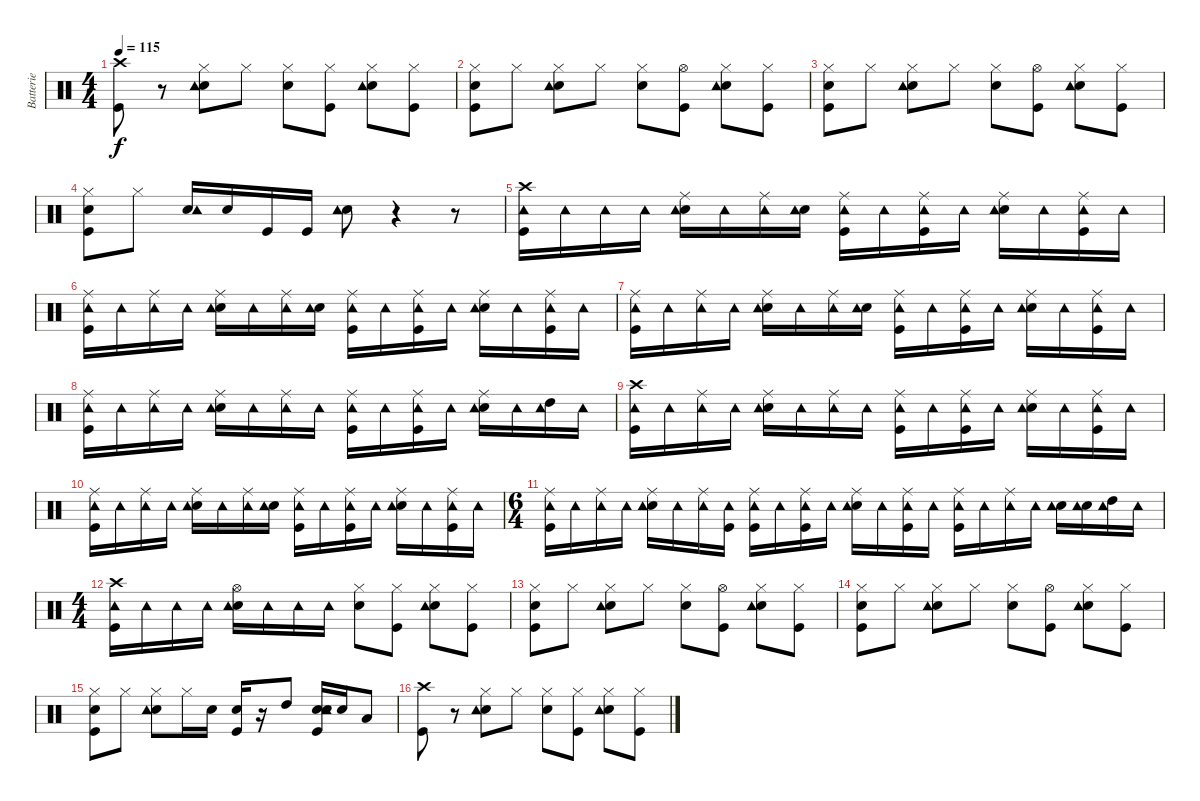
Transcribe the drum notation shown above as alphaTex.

\track ("Batterie" "Batterie") {instrument percussion}
\staff {score}
\articulation defaults
\ts (4 4)
\tempo 115
\clef neutral
\ks c
("Crash high (hit)" "Kick (hit)").8{dy f} r.8 ("Electric Snare (hit)" "Hi-Hat (closed)" "Tambourine (hit)").8 "Hi-Hat (closed)".8 ("Hi-Hat (closed)" "Electric Snare (hit)").8 ("Hi-Hat (closed)" "Kick (hit)").8 ("Hi-Hat (closed)" "Electric Snare (hit)" "Tambourine (hit)").8 ("Hi-Hat (closed)" "Kick (hit)").8 |
("Hi-Hat (closed)" "Electric Snare (hit)" "Kick (hit)").8 "Hi-Hat (closed)".8 ("Hi-Hat (closed)" "Electric Snare (hit)" "Tambourine (hit)").8 "Hi-Hat (closed)".8 ("Electric Snare (hit)" "Hi-Hat (closed)").8 ("Kick (hit)" "Hi-Hat (open)").8 ("Electric Snare (hit)" "Hi-Hat (closed)" "Tambourine (hit)").8 ("Kick (hit)" "Hi-Hat (closed)").8 |
("Hi-Hat (closed)" "Electric Snare (hit)" "Kick (hit)").8 "Hi-Hat (closed)".8 ("Electric Snare (hit)" "Hi-Hat (closed)" "Tambourine (hit)").8 "Hi-Hat (closed)".8 ("Hi-Hat (closed)" "Electric Snare (hit)").8 ("Hi-Hat (open)" "Kick (hit)").8 ("Electric Snare (hit)" "Hi-Hat (closed)" "Tambourine (hit)").8 ("Kick (hit)" "Hi-Hat (closed)").8 |
("Hi-Hat (closed)" "Electric Snare (hit)" "Kick (hit)").8 "Hi-Hat (closed)".8 ("Electric Snare (hit)" "Tambourine (hit)").16 "Electric Snare (hit)".16 "Kick (hit)".16 "Kick (hit)".16 ("Electric Snare (hit)" "Tambourine (hit)").8 r.4 r.8 |
("Kick (hit)" "Crash high (hit)" "Tambourine (hit)").16 "Tambourine (hit)".16 "Tambourine (hit)".16 "Tambourine (hit)".16 ("Ride (middle)" "Electric Snare (hit)" "Tambourine (hit)").16 "Tambourine (hit)".16 ("Ride (middle)" "Tambourine (hit)").16 ("Electric Snare (hit)" "Tambourine (hit)").16 ("Ride (middle)" "Kick (hit)" "Tambourine (hit)").16 "Tambourine (hit)".16 ("Kick (hit)" "Ride (middle)" "Tambourine (hit)").16 "Tambourine (hit)".16 ("Electric Snare (hit)" "Ride (middle)" "Tambourine (hit)").16 "Tambourine (hit)".16 ("Ride (middle)" "Kick (hit)" "Tambourine (hit)").16 "Tambourine (hit)".16 |
("Kick (hit)" "Ride (middle)" "Tambourine (hit)").16 "Tambourine (hit)".16 ("Ride (middle)" "Tambourine (hit)").16 "Tambourine (hit)".16 ("Electric Snare (hit)" "Ride (middle)" "Tambourine (hit)").16 "Tambourine (hit)".16 ("Ride (middle)" "Tambourine (hit)").16 ("Electric Snare (hit)" "Tambourine (hit)").16 ("Ride (middle)" "Kick (hit)" "Tambourine (hit)").16 "Tambourine (hit)".16 ("Ride (middle)" "Kick (hit)" "Tambourine (hit)").16 "Tambourine (hit)".16 ("Ride (middle)" "Electric Snare (hit)" "Tambourine (hit)").16 "Tambourine (hit)".16 ("Kick (hit)" "Ride (middle)" "Tambourine (hit)").16 "Tambourine (hit)".16 |
("Kick (hit)" "Ride (middle)" "Tambourine (hit)").16 "Tambourine (hit)".16 ("Ride (middle)" "Tambourine (hit)").16 "Tambourine (hit)".16 ("Ride (middle)" "Electric Snare (hit)" "Tambourine (hit)").16 "Tambourine (hit)".16 ("Ride (middle)" "Tambourine (hit)").16 ("Electric Snare (hit)" "Tambourine (hit)").16 ("Kick (hit)" "Ride (middle)" "Tambourine (hit)").16 "Tambourine (hit)".16 ("Kick (hit)" "Ride (middle)" "Tambourine (hit)").16 "Tambourine (hit)".16 ("Ride (middle)" "Electric Snare (hit)" "Tambourine (hit)").16 "Tambourine (hit)".16 ("Kick (hit)" "Ride (middle)" "Tambourine (hit)").16 "Tambourine (hit)".16 |
("Ride (middle)" "Kick (hit)" "Tambourine (hit)").16 "Tambourine (hit)".16 ("Ride (middle)" "Tambourine (hit)").16 "Tambourine (hit)".16 ("Ride (middle)" "Electric Snare (hit)" "Tambourine (hit)").16 "Tambourine (hit)".16 ("Ride (middle)" "Tambourine (hit)").16 "Tambourine (hit)".16 ("Kick (hit)" "Ride (middle)" "Tambourine (hit)").16 "Tambourine (hit)".16 ("Ride (middle)" "Kick (hit)" "Tambourine (hit)").16 "Tambourine (hit)".16 ("Electric Snare (hit)" "Ride (middle)" "Tambourine (hit)").16 "Tambourine (hit)".16 ("High Tom (hit)" "Tambourine (hit)").16 "Tambourine (hit)".16 |
("Kick (hit)" "Crash high (hit)" "Tambourine (hit)").16 "Tambourine (hit)".16 ("Ride (middle)" "Tambourine (hit)").16 "Tambourine (hit)".16 ("Ride (middle)" "Electric Snare (hit)" "Tambourine (hit)").16 "Tambourine (hit)".16 ("Ride (middle)" "Tambourine (hit)").16 "Tambourine (hit)".16 ("Ride (middle)" "Kick (hit)" "Tambourine (hit)").16 "Tambourine (hit)".16 ("Ride (middle)" "Kick (hit)" "Tambourine (hit)").16 "Tambourine (hit)".16 ("Ride (middle)" "Electric Snare (hit)" "Tambourine (hit)").16 "Tambourine (hit)".16 ("Ride (middle)" "Kick (hit)" "Tambourine (hit)").16 "Tambourine (hit)".16 |
("Ride (middle)" "Kick (hit)" "Tambourine (hit)").16 "Tambourine (hit)".16 ("Ride (middle)" "Tambourine (hit)").16 "Tambourine (hit)".16 ("Ride (middle)" "Electric Snare (hit)" "Tambourine (hit)").16 "Tambourine (hit)".16 ("Ride (middle)" "Tambourine (hit)").16 ("Electric Snare (hit)" "Tambourine (hit)").16 ("Kick (hit)" "Ride (middle)" "Tambourine (hit)").16 "Tambourine (hit)".16 ("Kick (hit)" "Ride (middle)" "Tambourine (hit)").16 "Tambourine (hit)".16 ("Electric Snare (hit)" "Ride (middle)" "Tambourine (hit)").16 "Tambourine (hit)".16 ("Kick (hit)" "Ride (middle)" "Tambourine (hit)").16 "Tambourine (hit)".16 |
\ts (6 4)
("Ride (middle)" "Kick (hit)" "Tambourine (hit)").16 "Tambourine (hit)".16 ("Ride (middle)" "Tambourine (hit)").16 "Tambourine (hit)".16 ("Electric Snare (hit)" "Ride (middle)" "Tambourine (hit)").16 "Tambourine (hit)".16 ("Ride (middle)" "Tambourine (hit)").16 ("Kick (hit)" "Tambourine (hit)").16 ("Ride (middle)" "Kick (hit)" "Tambourine (hit)").16 "Tambourine (hit)".16 ("Kick (hit)" "Ride (middle)" "Tambourine (hit)").16 "Tambourine (hit)".16 ("Electric Snare (hit)" "Ride (middle)" "Tambourine (hit)").16 "Tambourine (hit)".16 ("Kick (hit)" "Ride (middle)" "Tambourine (hit)").16 "Tambourine (hit)".16 ("Ride (middle)" "Kick (hit)" "Tambourine (hit)").16 "Tambourine (hit)".16 ("Ride (middle)" "Tambourine (hit)").16 "Tambourine (hit)".16 ("Electric Snare (hit)" "Tambourine (hit)").16 ("Electric Snare (hit)" "Tambourine (hit)").16 ("High Tom (hit)" "Tambourine (hit)").16 "Tambourine (hit)".16 |
\ts (4 4)
("Kick (hit)" "Crash high (hit)" "Tambourine (hit)").16 "Tambourine (hit)".16 "Tambourine (hit)".16 "Tambourine (hit)".16 ("Electric Snare (hit)" "Hi-Hat (open)" "Tambourine (hit)").16 "Tambourine (hit)".16 "Tambourine (hit)".16 "Tambourine (hit)".16 ("Hi-Hat (closed)" "Electric Snare (hit)").8 ("Kick (hit)" "Hi-Hat (closed)").8 ("Electric Snare (hit)" "Hi-Hat (closed)" "Tambourine (hit)").8 ("Kick (hit)" "Hi-Hat (closed)").8 |
("Kick (hit)" "Electric Snare (hit)" "Hi-Hat (closed)").8 "Hi-Hat (closed)".8 ("Hi-Hat (closed)" "Electric Snare (hit)" "Tambourine (hit)").8 "Hi-Hat (closed)".8 ("Electric Snare (hit)" "Hi-Hat (closed)").8 ("Hi-Hat (open)" "Kick (hit)").8 ("Hi-Hat (closed)" "Electric Snare (hit)" "Tambourine (hit)").8 ("Hi-Hat (closed)" "Kick (hit)").8 |
("Electric Snare (hit)" "Hi-Hat (closed)" "Kick (hit)").8 "Hi-Hat (closed)".8 ("Electric Snare (hit)" "Hi-Hat (closed)" "Tambourine (hit)").8 "Hi-Hat (closed)".8 ("Hi-Hat (closed)" "Electric Snare (hit)").8 ("Hi-Hat (open)" "Kick (hit)").8 ("Electric Snare (hit)" "Hi-Hat (closed)" "Tambourine (hit)").8 ("Kick (hit)" "Hi-Hat (closed)").8 |
("Kick (hit)" "Hi-Hat (closed)" "Electric Snare (hit)").8 "Hi-Hat (closed)".8 ("Electric Snare (hit)" "Hi-Hat (closed)" "Tambourine (hit)").8 "Hi-Hat (closed)".16 "Electric Snare (hit)".16 ("Kick (hit)" "Electric Snare (hit)").16 r.16 "High Tom (hit)".8 ("Electric Snare (hit)" "Snare (hit) 2" "Kick (hit)" "Tambourine (hit)").16 "Electric Snare (hit)".16 "Low Tom (hit)".8 |
("Crash high (hit)" "Kick (hit)").8 r.8 ("Electric Snare (hit)" "Hi-Hat (closed)" "Tambourine (hit)").8 "Hi-Hat (closed)".8 ("Electric Snare (hit)" "Hi-Hat (closed)").8 ("Kick (hit)" "Hi-Hat (closed)").8 ("Hi-Hat (closed)" "Electric Snare (hit)" "Tambourine (hit)").8 ("Hi-Hat (closed)" "Kick (hit)").8
